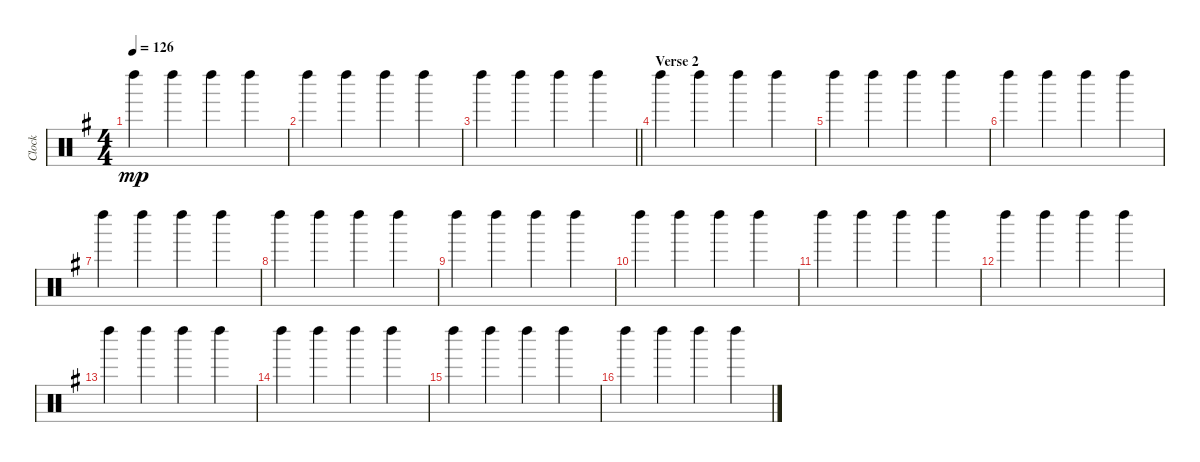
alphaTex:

\track ("Clock" "Clock") {instrument percussion}
\staff {score}
\articulation defaults
\ts (4 4)
\tempo 126
\clef neutral
\ks eminor "Left Maraca (hit)".4{dy mp} "Left Maraca (hit)".4 "Left Maraca (hit)".4 "Left Maraca (hit)".4
|
"Left Maraca (hit)".4 "Left Maraca (hit)".4 "Left Maraca (hit)".4 "Left Maraca (hit)".4 |
\barLineRight lightlight "Left Maraca (hit)".4 "Left Maraca (hit)".4 "Left Maraca (hit)".4 "Left Maraca (hit)".4
|
\section ("" "Verse 2")
"Left Maraca (hit)".4 "Left Maraca (hit)".4 "Left Maraca (hit)".4 "Left Maraca (hit)".4 |
"Left Maraca (hit)".4 "Left Maraca (hit)".4 "Left Maraca (hit)".4 "Left Maraca (hit)".4 |
"Left Maraca (hit)".4 "Left Maraca (hit)".4 "Left Maraca (hit)".4 "Left Maraca (hit)".4 |
"Left Maraca (hit)".4 "Left Maraca (hit)".4 "Left Maraca (hit)".4 "Left Maraca (hit)".4 |
"Left Maraca (hit)".4 "Left Maraca (hit)".4 "Left Maraca (hit)".4 "Left Maraca (hit)".4 |
"Left Maraca (hit)".4 "Left Maraca (hit)".4 "Left Maraca (hit)".4 "Left Maraca (hit)".4 |
"Left Maraca (hit)".4 "Left Maraca (hit)".4 "Left Maraca (hit)".4 "Left Maraca (hit)".4 |
"Left Maraca (hit)".4 "Left Maraca (hit)".4 "Left Maraca (hit)".4 "Left Maraca (hit)".4 |
"Left Maraca (hit)".4 "Left Maraca (hit)".4 "Left Maraca (hit)".4 "Left Maraca (hit)".4 |
"Left Maraca (hit)".4 "Left Maraca (hit)".4 "Left Maraca (hit)".4 "Left Maraca (hit)".4 |
"Left Maraca (hit)".4 "Left Maraca (hit)".4 "Left Maraca (hit)".4 "Left Maraca (hit)".4 |
"Left Maraca (hit)".4 "Left Maraca (hit)".4 "Left Maraca (hit)".4 "Left Maraca (hit)".4 |
"Left Maraca (hit)".4 "Left Maraca (hit)".4 "Left Maraca (hit)".4 "Left Maraca (hit)".4
